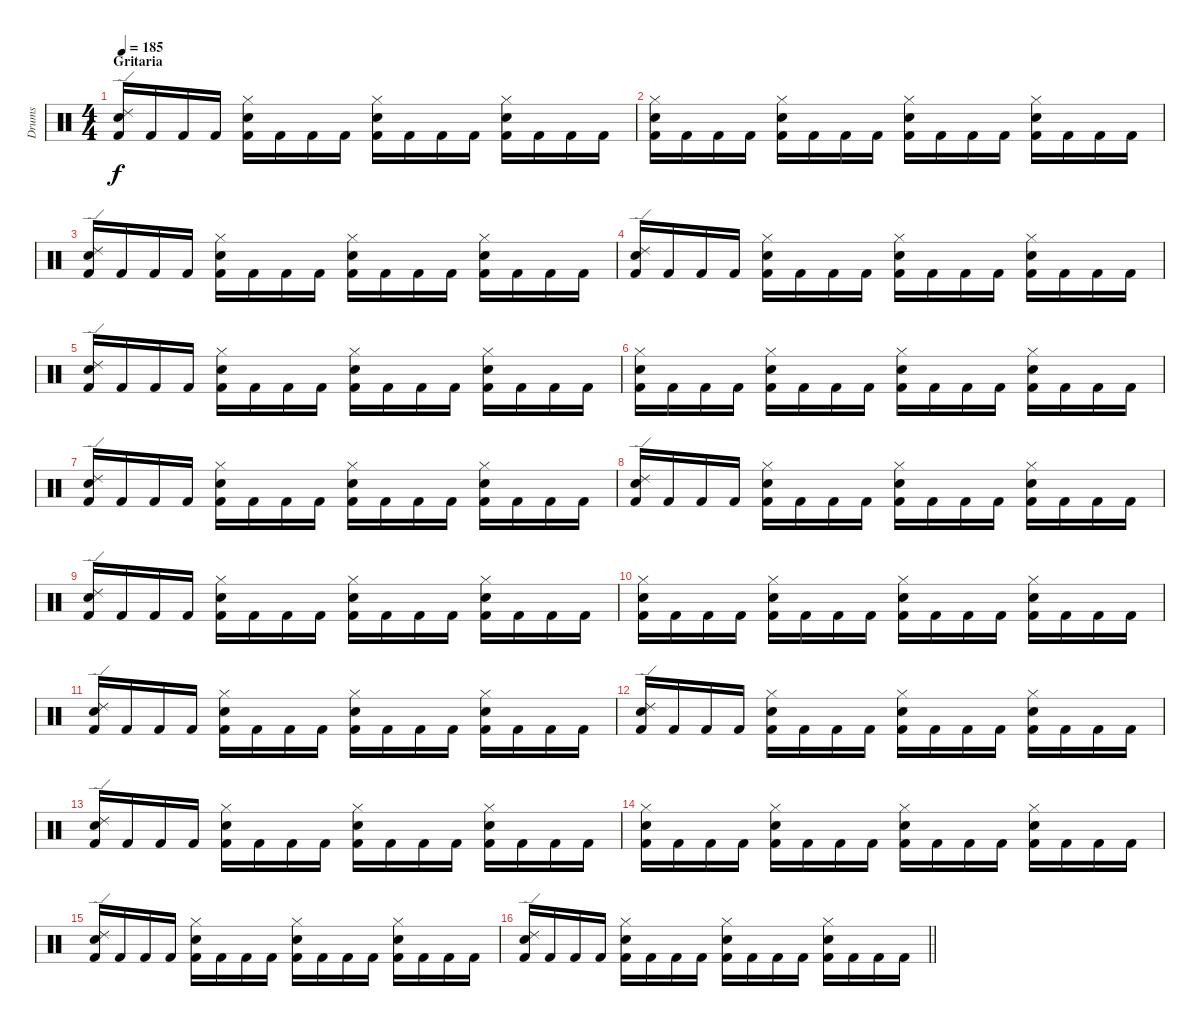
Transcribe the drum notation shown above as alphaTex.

\track ("Drums" "Drums") {instrument percussion}
\staff {score}
\articulation defaults
\ts (4 4)
\section ("" "Gritaria")
\tempo 185
\clef neutral
\ks c
("Electric Snare (hit)" "Ride (edge) 2" "Kick (hit) 2").16{dy f} "Kick (hit) 2".16 "Kick (hit) 2".16 "Kick (hit) 2".16 ("Hi-Hat (closed)" "Electric Snare (hit)" "Kick (hit) 2").16 "Kick (hit) 2".16 "Kick (hit) 2".16 "Kick (hit) 2".16 ("Electric Snare (hit)" "Hi-Hat (closed)" "Kick (hit) 2").16 "Kick (hit) 2".16 "Kick (hit) 2".16 "Kick (hit) 2".16 ("Hi-Hat (closed)" "Electric Snare (hit)" "Kick (hit) 2").16 "Kick (hit) 2".16 "Kick (hit) 2".16 "Kick (hit) 2".16 |
("Electric Snare (hit)" "Hi-Hat (closed)" "Kick (hit) 2").16 "Kick (hit) 2".16 "Kick (hit) 2".16 "Kick (hit) 2".16 ("Hi-Hat (closed)" "Electric Snare (hit)" "Kick (hit) 2").16 "Kick (hit) 2".16 "Kick (hit) 2".16 "Kick (hit) 2".16 ("Electric Snare (hit)" "Hi-Hat (closed)" "Kick (hit) 2").16 "Kick (hit) 2".16 "Kick (hit) 2".16 "Kick (hit) 2".16 ("Hi-Hat (closed)" "Electric Snare (hit)" "Kick (hit) 2").16 "Kick (hit) 2".16 "Kick (hit) 2".16 "Kick (hit) 2".16 |
("Electric Snare (hit)" "Ride (edge) 2" "Kick (hit) 2").16 "Kick (hit) 2".16 "Kick (hit) 2".16 "Kick (hit) 2".16 ("Hi-Hat (closed)" "Electric Snare (hit)" "Kick (hit) 2").16 "Kick (hit) 2".16 "Kick (hit) 2".16 "Kick (hit) 2".16 ("Electric Snare (hit)" "Hi-Hat (closed)" "Kick (hit) 2").16 "Kick (hit) 2".16 "Kick (hit) 2".16 "Kick (hit) 2".16 ("Hi-Hat (closed)" "Electric Snare (hit)" "Kick (hit) 2").16 "Kick (hit) 2".16 "Kick (hit) 2".16 "Kick (hit) 2".16 |
("Electric Snare (hit)" "Ride (edge) 2" "Kick (hit) 2").16 "Kick (hit) 2".16 "Kick (hit) 2".16 "Kick (hit) 2".16 ("Hi-Hat (closed)" "Electric Snare (hit)" "Kick (hit) 2").16 "Kick (hit) 2".16 "Kick (hit) 2".16 "Kick (hit) 2".16 ("Electric Snare (hit)" "Hi-Hat (closed)" "Kick (hit) 2").16 "Kick (hit) 2".16 "Kick (hit) 2".16 "Kick (hit) 2".16 ("Hi-Hat (closed)" "Electric Snare (hit)" "Kick (hit) 2").16 "Kick (hit) 2".16 "Kick (hit) 2".16 "Kick (hit) 2".16 |
("Electric Snare (hit)" "Ride (edge) 2" "Kick (hit) 2").16 "Kick (hit) 2".16 "Kick (hit) 2".16 "Kick (hit) 2".16 ("Hi-Hat (closed)" "Electric Snare (hit)" "Kick (hit) 2").16 "Kick (hit) 2".16 "Kick (hit) 2".16 "Kick (hit) 2".16 ("Electric Snare (hit)" "Hi-Hat (closed)" "Kick (hit) 2").16 "Kick (hit) 2".16 "Kick (hit) 2".16 "Kick (hit) 2".16 ("Hi-Hat (closed)" "Electric Snare (hit)" "Kick (hit) 2").16 "Kick (hit) 2".16 "Kick (hit) 2".16 "Kick (hit) 2".16 |
("Electric Snare (hit)" "Hi-Hat (closed)" "Kick (hit) 2").16 "Kick (hit) 2".16 "Kick (hit) 2".16 "Kick (hit) 2".16 ("Hi-Hat (closed)" "Electric Snare (hit)" "Kick (hit) 2").16 "Kick (hit) 2".16 "Kick (hit) 2".16 "Kick (hit) 2".16 ("Electric Snare (hit)" "Hi-Hat (closed)" "Kick (hit) 2").16 "Kick (hit) 2".16 "Kick (hit) 2".16 "Kick (hit) 2".16 ("Hi-Hat (closed)" "Electric Snare (hit)" "Kick (hit) 2").16 "Kick (hit) 2".16 "Kick (hit) 2".16 "Kick (hit) 2".16 |
("Electric Snare (hit)" "Ride (edge) 2" "Kick (hit) 2").16 "Kick (hit) 2".16 "Kick (hit) 2".16 "Kick (hit) 2".16 ("Hi-Hat (closed)" "Electric Snare (hit)" "Kick (hit) 2").16 "Kick (hit) 2".16 "Kick (hit) 2".16 "Kick (hit) 2".16 ("Electric Snare (hit)" "Hi-Hat (closed)" "Kick (hit) 2").16 "Kick (hit) 2".16 "Kick (hit) 2".16 "Kick (hit) 2".16 ("Hi-Hat (closed)" "Electric Snare (hit)" "Kick (hit) 2").16 "Kick (hit) 2".16 "Kick (hit) 2".16 "Kick (hit) 2".16 |
("Electric Snare (hit)" "Ride (edge) 2" "Kick (hit) 2").16 "Kick (hit) 2".16 "Kick (hit) 2".16 "Kick (hit) 2".16 ("Hi-Hat (closed)" "Electric Snare (hit)" "Kick (hit) 2").16 "Kick (hit) 2".16 "Kick (hit) 2".16 "Kick (hit) 2".16 ("Electric Snare (hit)" "Hi-Hat (closed)" "Kick (hit) 2").16 "Kick (hit) 2".16 "Kick (hit) 2".16 "Kick (hit) 2".16 ("Hi-Hat (closed)" "Electric Snare (hit)" "Kick (hit) 2").16 "Kick (hit) 2".16 "Kick (hit) 2".16 "Kick (hit) 2".16 |
("Electric Snare (hit)" "Ride (edge) 2" "Kick (hit) 2").16 "Kick (hit) 2".16 "Kick (hit) 2".16 "Kick (hit) 2".16 ("Hi-Hat (closed)" "Electric Snare (hit)" "Kick (hit) 2").16 "Kick (hit) 2".16 "Kick (hit) 2".16 "Kick (hit) 2".16 ("Electric Snare (hit)" "Hi-Hat (closed)" "Kick (hit) 2").16 "Kick (hit) 2".16 "Kick (hit) 2".16 "Kick (hit) 2".16 ("Hi-Hat (closed)" "Electric Snare (hit)" "Kick (hit) 2").16 "Kick (hit) 2".16 "Kick (hit) 2".16 "Kick (hit) 2".16 |
("Electric Snare (hit)" "Hi-Hat (closed)" "Kick (hit) 2").16 "Kick (hit) 2".16 "Kick (hit) 2".16 "Kick (hit) 2".16 ("Hi-Hat (closed)" "Electric Snare (hit)" "Kick (hit) 2").16 "Kick (hit) 2".16 "Kick (hit) 2".16 "Kick (hit) 2".16 ("Electric Snare (hit)" "Hi-Hat (closed)" "Kick (hit) 2").16 "Kick (hit) 2".16 "Kick (hit) 2".16 "Kick (hit) 2".16 ("Hi-Hat (closed)" "Electric Snare (hit)" "Kick (hit) 2").16 "Kick (hit) 2".16 "Kick (hit) 2".16 "Kick (hit) 2".16 |
("Electric Snare (hit)" "Ride (edge) 2" "Kick (hit) 2").16 "Kick (hit) 2".16 "Kick (hit) 2".16 "Kick (hit) 2".16 ("Hi-Hat (closed)" "Electric Snare (hit)" "Kick (hit) 2").16 "Kick (hit) 2".16 "Kick (hit) 2".16 "Kick (hit) 2".16 ("Electric Snare (hit)" "Hi-Hat (closed)" "Kick (hit) 2").16 "Kick (hit) 2".16 "Kick (hit) 2".16 "Kick (hit) 2".16 ("Hi-Hat (closed)" "Electric Snare (hit)" "Kick (hit) 2").16 "Kick (hit) 2".16 "Kick (hit) 2".16 "Kick (hit) 2".16 |
("Electric Snare (hit)" "Ride (edge) 2" "Kick (hit) 2").16 "Kick (hit) 2".16 "Kick (hit) 2".16 "Kick (hit) 2".16 ("Hi-Hat (closed)" "Electric Snare (hit)" "Kick (hit) 2").16 "Kick (hit) 2".16 "Kick (hit) 2".16 "Kick (hit) 2".16 ("Electric Snare (hit)" "Hi-Hat (closed)" "Kick (hit) 2").16 "Kick (hit) 2".16 "Kick (hit) 2".16 "Kick (hit) 2".16 ("Hi-Hat (closed)" "Electric Snare (hit)" "Kick (hit) 2").16 "Kick (hit) 2".16 "Kick (hit) 2".16 "Kick (hit) 2".16 |
("Electric Snare (hit)" "Ride (edge) 2" "Kick (hit) 2").16 "Kick (hit) 2".16 "Kick (hit) 2".16 "Kick (hit) 2".16 ("Hi-Hat (closed)" "Electric Snare (hit)" "Kick (hit) 2").16 "Kick (hit) 2".16 "Kick (hit) 2".16 "Kick (hit) 2".16 ("Electric Snare (hit)" "Hi-Hat (closed)" "Kick (hit) 2").16 "Kick (hit) 2".16 "Kick (hit) 2".16 "Kick (hit) 2".16 ("Hi-Hat (closed)" "Electric Snare (hit)" "Kick (hit) 2").16 "Kick (hit) 2".16 "Kick (hit) 2".16 "Kick (hit) 2".16 |
("Electric Snare (hit)" "Hi-Hat (closed)" "Kick (hit) 2").16 "Kick (hit) 2".16 "Kick (hit) 2".16 "Kick (hit) 2".16 ("Hi-Hat (closed)" "Electric Snare (hit)" "Kick (hit) 2").16 "Kick (hit) 2".16 "Kick (hit) 2".16 "Kick (hit) 2".16 ("Electric Snare (hit)" "Hi-Hat (closed)" "Kick (hit) 2").16 "Kick (hit) 2".16 "Kick (hit) 2".16 "Kick (hit) 2".16 ("Hi-Hat (closed)" "Electric Snare (hit)" "Kick (hit) 2").16 "Kick (hit) 2".16 "Kick (hit) 2".16 "Kick (hit) 2".16 |
("Electric Snare (hit)" "Ride (edge) 2" "Kick (hit) 2").16 "Kick (hit) 2".16 "Kick (hit) 2".16 "Kick (hit) 2".16 ("Hi-Hat (closed)" "Electric Snare (hit)" "Kick (hit) 2").16 "Kick (hit) 2".16 "Kick (hit) 2".16 "Kick (hit) 2".16 ("Electric Snare (hit)" "Hi-Hat (closed)" "Kick (hit) 2").16 "Kick (hit) 2".16 "Kick (hit) 2".16 "Kick (hit) 2".16 ("Hi-Hat (closed)" "Electric Snare (hit)" "Kick (hit) 2").16 "Kick (hit) 2".16 "Kick (hit) 2".16 "Kick (hit) 2".16 |
\barLineRight lightlight
("Electric Snare (hit)" "Ride (edge) 2" "Kick (hit) 2").16 "Kick (hit) 2".16 "Kick (hit) 2".16 "Kick (hit) 2".16 ("Hi-Hat (closed)" "Electric Snare (hit)" "Kick (hit) 2").16 "Kick (hit) 2".16 "Kick (hit) 2".16 "Kick (hit) 2".16 ("Electric Snare (hit)" "Hi-Hat (closed)" "Kick (hit) 2").16 "Kick (hit) 2".16 "Kick (hit) 2".16 "Kick (hit) 2".16 ("Hi-Hat (closed)" "Electric Snare (hit)" "Kick (hit) 2").16 "Kick (hit) 2".16 "Kick (hit) 2".16 "Kick (hit) 2".16
